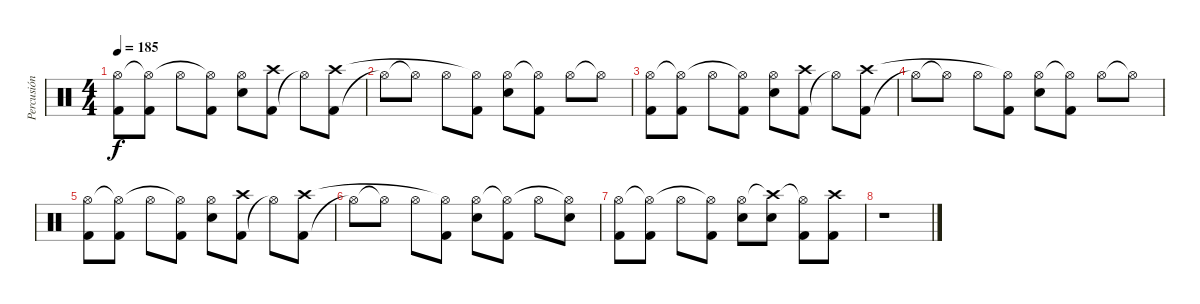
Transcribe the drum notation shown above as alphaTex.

\track ("Percusión" "Percusión") {instrument percussion}
\staff {score}
\articulation defaults
\ts (4 4)
\tempo 185
\clef neutral
\ks c
("Kick (hit) 2" "Hi-Hat (open)").8{dy f} ("Kick (hit) 2" "Hi-Hat (open)"{t}).8 "Hi-Hat (open)".8 ("Kick (hit) 2" "Hi-Hat (open)"{t}).8 ("Snare (hit) 2" "Hi-Hat (open)").8 ("Kick (hit) 2" "Crash high (hit)").8 "Hi-Hat (open)"{t}.8 ("Kick (hit) 2" "Crash high (hit)").8 |
"Hi-Hat (open)"{t}.8 "Hi-Hat (open)"{t}.8 "Hi-Hat (open)".8 ("Kick (hit) 2" "Hi-Hat (open)"{t}).8 ("Snare (hit) 2" "Hi-Hat (open)").8 ("Kick (hit) 2" "Hi-Hat (open)"{t}).8 "Hi-Hat (open)".8 "Hi-Hat (open)"{t}.8 |
("Kick (hit) 2" "Hi-Hat (open)").8 ("Kick (hit) 2" "Hi-Hat (open)"{t}).8 "Hi-Hat (open)".8 ("Kick (hit) 2" "Hi-Hat (open)"{t}).8 ("Snare (hit) 2" "Hi-Hat (open)").8 ("Kick (hit) 2" "Crash high (hit)").8 "Hi-Hat (open)"{t}.8 ("Kick (hit) 2" "Crash high (hit)").8 |
"Hi-Hat (open)"{t}.8 "Hi-Hat (open)"{t}.8 "Hi-Hat (open)".8 ("Kick (hit) 2" "Hi-Hat (open)"{t}).8 ("Snare (hit) 2" "Hi-Hat (open)").8 ("Kick (hit) 2" "Hi-Hat (open)"{t}).8 "Hi-Hat (open)".8 "Hi-Hat (open)"{t}.8 |
("Kick (hit) 2" "Hi-Hat (open)").8 ("Kick (hit) 2" "Hi-Hat (open)"{t}).8 "Hi-Hat (open)".8 ("Kick (hit) 2" "Hi-Hat (open)"{t}).8 ("Snare (hit) 2" "Hi-Hat (open)").8 ("Kick (hit) 2" "Crash high (hit)").8 "Hi-Hat (open)"{t}.8 ("Kick (hit) 2" "Crash high (hit)").8 |
"Hi-Hat (open)"{t}.8 "Hi-Hat (open)"{t}.8 "Hi-Hat (open)".8 ("Kick (hit) 2" "Hi-Hat (open)"{t}).8 ("Snare (hit) 2" "Hi-Hat (open)").8 ("Kick (hit) 2" "Hi-Hat (open)"{t}).8 "Hi-Hat (open)".8 ("Snare (hit) 2" "Hi-Hat (open)"{t}).8 |
("Kick (hit) 2" "Hi-Hat (open)").8 ("Kick (hit) 2" "Hi-Hat (open)"{t}).8 "Hi-Hat (open)".8 ("Kick (hit) 2" "Hi-Hat (open)"{t}).8 ("Snare (hit) 2" "Hi-Hat (open)").8 ("Snare (hit) 2" "Crash high (hit)"{t}).8 ("Kick (hit) 2" "Hi-Hat (open)"{t}).8 ("Kick (hit) 2" "Crash high (hit)").8 |
r.1
